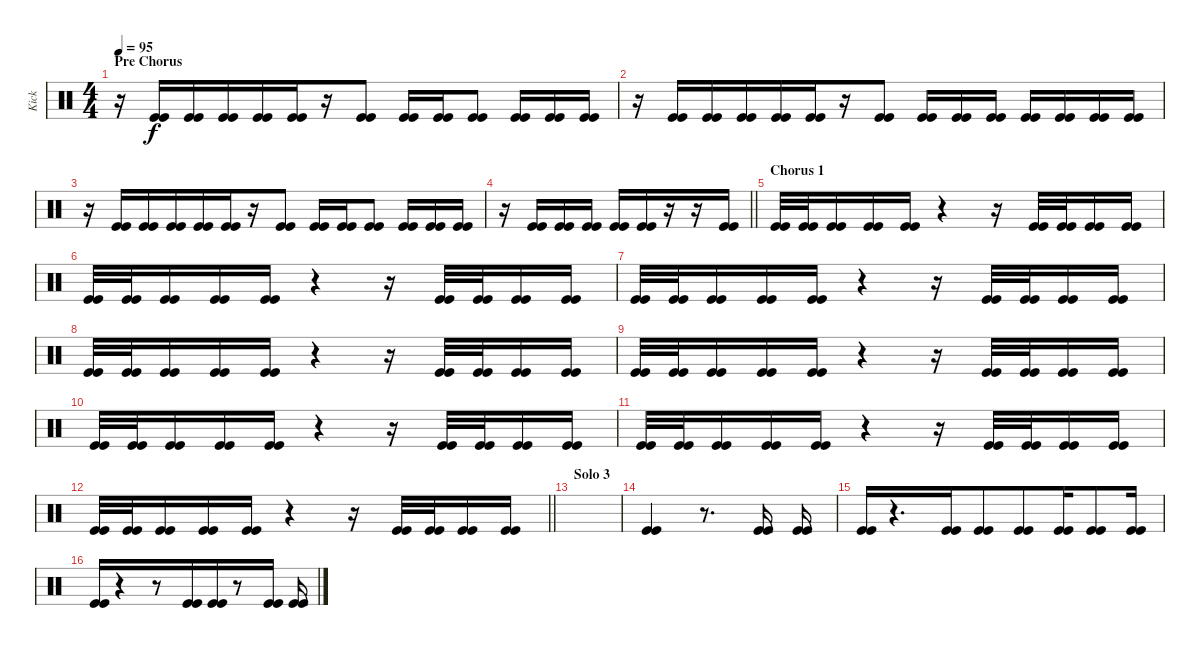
\track ("Kick" "Kick") {instrument percussion}
\staff {score}
\articulation defaults
\ts (4 4)
\section ("" "Pre Chorus")
\tempo 95
\clef neutral
\ks c
r.16{dy f} ("Kick (hit)" "Kick (hit)").16{beam merge} ("Kick (hit)" "Kick (hit)").16 ("Kick (hit)" "Kick (hit)").16{beam merge} ("Kick (hit)" "Kick (hit)").16{beam merge} ("Kick (hit)" "Kick (hit)").16{beam merge} r.16 ("Kick (hit)" "Kick (hit)").8 ("Kick (hit)" "Kick (hit)").16 ("Kick (hit)" "Kick (hit)").16{beam merge} ("Kick (hit)" "Kick (hit)").8 ("Kick (hit)" "Kick (hit)").16{beam merge} ("Kick (hit)" "Kick (hit)").16 ("Kick (hit)" "Kick (hit)").16 |
r.16 ("Kick (hit)" "Kick (hit)").16 ("Kick (hit)" "Kick (hit)").16{beam merge} ("Kick (hit)" "Kick (hit)").16{beam merge} ("Kick (hit)" "Kick (hit)").16 ("Kick (hit)" "Kick (hit)").16 r.16 ("Kick (hit)" "Kick (hit)").8 ("Kick (hit)" "Kick (hit)").16 ("Kick (hit)" "Kick (hit)").16 ("Kick (hit)" "Kick (hit)").16 ("Kick (hit)" "Kick (hit)").16{beam merge} ("Kick (hit)" "Kick (hit)").16 ("Kick (hit)" "Kick (hit)").16 ("Kick (hit)" "Kick (hit)").16 |
r.16{beam merge} ("Kick (hit)" "Kick (hit)").16 ("Kick (hit)" "Kick (hit)").16{beam merge} ("Kick (hit)" "Kick (hit)").16{beam merge} ("Kick (hit)" "Kick (hit)").16 ("Kick (hit)" "Kick (hit)").16 r.16 ("Kick (hit)" "Kick (hit)").8 ("Kick (hit)" "Kick (hit)").16 ("Kick (hit)" "Kick (hit)").16 ("Kick (hit)" "Kick (hit)").8 ("Kick (hit)" "Kick (hit)").16{beam merge} ("Kick (hit)" "Kick (hit)").16 ("Kick (hit)" "Kick (hit)").16 |
\barLineRight lightlight
r.16{beam merge} ("Kick (hit)" "Kick (hit)").16 ("Kick (hit)" "Kick (hit)").16 ("Kick (hit)" "Kick (hit)").16 ("Kick (hit)" "Kick (hit)").16{beam merge} ("Kick (hit)" "Kick (hit)").16{beam merge} r.16{beam merge} r.16{beam merge} ("Kick (hit)" "Kick (hit)").16 |
\section ("" "Chorus 1")
("Kick (hit)" "Kick (hit)").32{beam merge} ("Kick (hit)" "Kick (hit)").32{beam merge} ("Kick (hit)" "Kick (hit)").16 ("Kick (hit)" "Kick (hit)").16 ("Kick (hit)" "Kick (hit)").16 r.4 r.16 ("Kick (hit)" "Kick (hit)").32{beam merge} ("Kick (hit)" "Kick (hit)").32 ("Kick (hit)" "Kick (hit)").16{beam merge} ("Kick (hit)" "Kick (hit)").16 |
("Kick (hit)" "Kick (hit)").32{beam merge} ("Kick (hit)" "Kick (hit)").32{beam merge} ("Kick (hit)" "Kick (hit)").16 ("Kick (hit)" "Kick (hit)").16 ("Kick (hit)" "Kick (hit)").16 r.4 r.16 ("Kick (hit)" "Kick (hit)").32{beam merge} ("Kick (hit)" "Kick (hit)").32 ("Kick (hit)" "Kick (hit)").16{beam merge} ("Kick (hit)" "Kick (hit)").16 |
("Kick (hit)" "Kick (hit)").32{beam merge} ("Kick (hit)" "Kick (hit)").32{beam merge} ("Kick (hit)" "Kick (hit)").16 ("Kick (hit)" "Kick (hit)").16 ("Kick (hit)" "Kick (hit)").16 r.4 r.16 ("Kick (hit)" "Kick (hit)").32{beam merge} ("Kick (hit)" "Kick (hit)").32 ("Kick (hit)" "Kick (hit)").16{beam merge} ("Kick (hit)" "Kick (hit)").16 |
("Kick (hit)" "Kick (hit)").32{beam merge} ("Kick (hit)" "Kick (hit)").32{beam merge} ("Kick (hit)" "Kick (hit)").16 ("Kick (hit)" "Kick (hit)").16 ("Kick (hit)" "Kick (hit)").16 r.4 r.16 ("Kick (hit)" "Kick (hit)").32{beam merge} ("Kick (hit)" "Kick (hit)").32 ("Kick (hit)" "Kick (hit)").16{beam merge} ("Kick (hit)" "Kick (hit)").16 |
("Kick (hit)" "Kick (hit)").32{beam merge} ("Kick (hit)" "Kick (hit)").32{beam merge} ("Kick (hit)" "Kick (hit)").16 ("Kick (hit)" "Kick (hit)").16 ("Kick (hit)" "Kick (hit)").16 r.4 r.16 ("Kick (hit)" "Kick (hit)").32{beam merge} ("Kick (hit)" "Kick (hit)").32 ("Kick (hit)" "Kick (hit)").16{beam merge} ("Kick (hit)" "Kick (hit)").16 |
("Kick (hit)" "Kick (hit)").32{beam merge} ("Kick (hit)" "Kick (hit)").32{beam merge} ("Kick (hit)" "Kick (hit)").16 ("Kick (hit)" "Kick (hit)").16 ("Kick (hit)" "Kick (hit)").16 r.4 r.16 ("Kick (hit)" "Kick (hit)").32{beam merge} ("Kick (hit)" "Kick (hit)").32 ("Kick (hit)" "Kick (hit)").16{beam merge} ("Kick (hit)" "Kick (hit)").16 |
("Kick (hit)" "Kick (hit)").32{beam merge} ("Kick (hit)" "Kick (hit)").32{beam merge} ("Kick (hit)" "Kick (hit)").16 ("Kick (hit)" "Kick (hit)").16 ("Kick (hit)" "Kick (hit)").16 r.4 r.16 ("Kick (hit)" "Kick (hit)").32{beam merge} ("Kick (hit)" "Kick (hit)").32 ("Kick (hit)" "Kick (hit)").16{beam merge} ("Kick (hit)" "Kick (hit)").16 |
\barLineRight lightlight
("Kick (hit)" "Kick (hit)").32{beam merge} ("Kick (hit)" "Kick (hit)").32{beam merge} ("Kick (hit)" "Kick (hit)").16 ("Kick (hit)" "Kick (hit)").16 ("Kick (hit)" "Kick (hit)").16 r.4 r.16 ("Kick (hit)" "Kick (hit)").32{beam merge} ("Kick (hit)" "Kick (hit)").32 ("Kick (hit)" "Kick (hit)").16{beam merge} ("Kick (hit)" "Kick (hit)").16 |
\section ("" "Solo 3")
|
("Kick (hit)" "Kick (hit)").4 r.8{d} ("Kick (hit)" "Kick (hit)").16 ("Kick (hit)" "Kick (hit)").16 |
("Kick (hit)" "Kick (hit)").16{beam merge} r.4{d beam merge} ("Kick (hit)" "Kick (hit)").16{beam merge} ("Kick (hit)" "Kick (hit)").8 ("Kick (hit)" "Kick (hit)").8{beam merge} ("Kick (hit)" "Kick (hit)").16 ("Kick (hit)" "Kick (hit)").8{beam merge} ("Kick (hit)" "Kick (hit)").16 |
("Kick (hit)" "Kick (hit)").16{beam merge} r.4{beam merge} r.8 ("Kick (hit)" "Kick (hit)").16{beam merge} ("Kick (hit)" "Kick (hit)").16 r.8{beam merge} ("Kick (hit)" "Kick (hit)").16 ("Kick (hit)" "Kick (hit)").16
